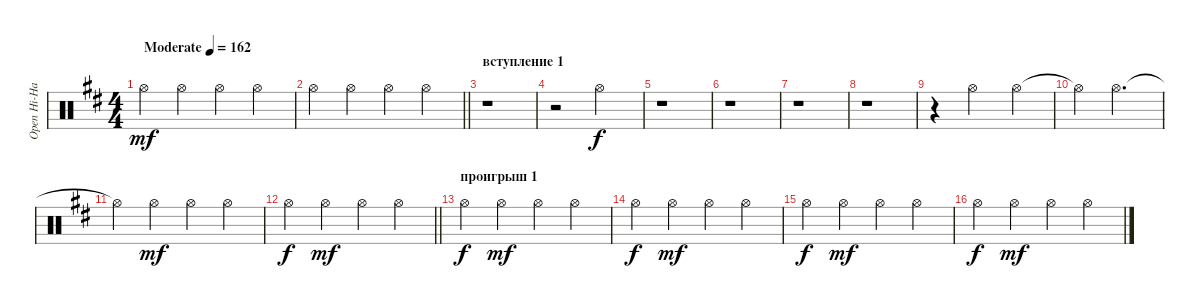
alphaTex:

\track ("Open Hi-Hat" "Open Hi-Ha") {instrument percussion}
\staff {score}
\articulation defaults
\ts (4 4)
\tempo (162 "Moderate")
\clef neutral
\ks bminor "Hi-Hat (open)".4{dy mf} "Hi-Hat (open)".4 "Hi-Hat (open)".4 "Hi-Hat (open)".4
|
\barLineRight lightlight "Hi-Hat (open)".4 "Hi-Hat (open)".4 "Hi-Hat (open)".4 "Hi-Hat (open)".4
|
\section ("" "вступление 1")
r.1 |
r.2 "Hi-Hat (open)".2{dy f} |
r.1 |
r.1 |
r.1 |
r.1 |
r.4 "Hi-Hat (open)".2 "Hi-Hat (open)".4 |
"Hi-Hat (open)"{t}.4 "Hi-Hat (open)".2{d} |
"Hi-Hat (open)"{t}.4 "Hi-Hat (open)".4{dy mf} "Hi-Hat (open)".4 "Hi-Hat (open)".4 |
\barLineRight lightlight "Hi-Hat (open)".4{dy f} "Hi-Hat (open)".4{dy mf} "Hi-Hat (open)".4 "Hi-Hat (open)".4
|
\section ("" "проигрыш 1")
"Hi-Hat (open)".4{dy f} "Hi-Hat (open)".4{dy mf} "Hi-Hat (open)".4 "Hi-Hat (open)".4 |
"Hi-Hat (open)".4{dy f} "Hi-Hat (open)".4{dy mf} "Hi-Hat (open)".4 "Hi-Hat (open)".4 |
"Hi-Hat (open)".4{dy f} "Hi-Hat (open)".4{dy mf} "Hi-Hat (open)".4 "Hi-Hat (open)".4 |
"Hi-Hat (open)".4{dy f} "Hi-Hat (open)".4{dy mf} "Hi-Hat (open)".4 "Hi-Hat (open)".4
